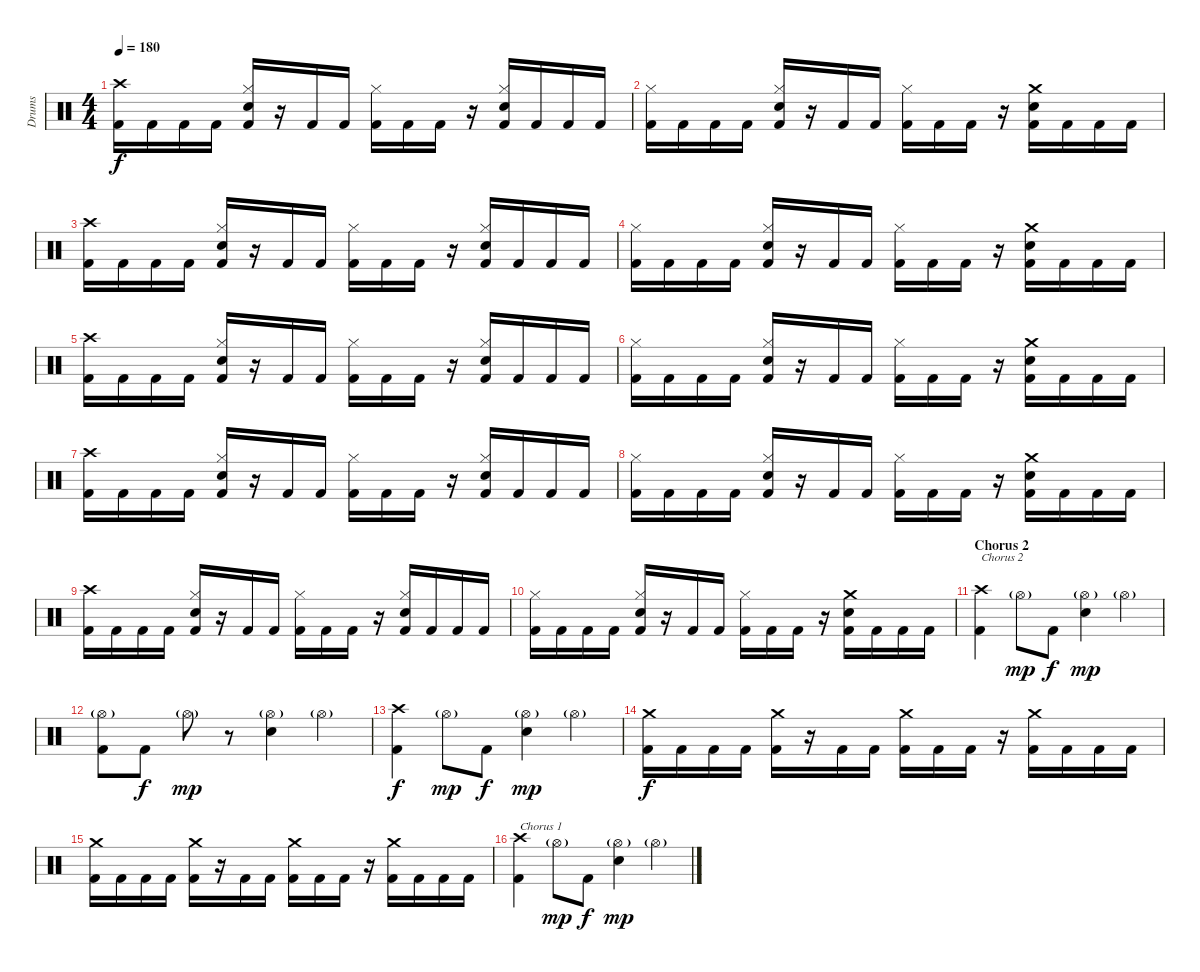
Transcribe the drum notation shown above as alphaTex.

\track ("Drums" "Drums") {instrument percussion}
\staff {score}
\articulation defaults
\ts (4 4)
\tempo 180
\clef neutral
\ks c
("Crash high (hit)" "Kick (hit) 2").16{dy f} "Kick (hit) 2".16 "Kick (hit) 2".16 "Kick (hit) 2".16 ("Hi-Hat (closed)" "Snare (hit) 2" "Kick (hit) 2").16 r.16 "Kick (hit) 2".16 "Kick (hit) 2".16 ("Hi-Hat (closed)" "Kick (hit) 2").16 "Kick (hit) 2".16 "Kick (hit) 2".16 r.16 ("Hi-Hat (closed)" "Snare (hit) 2" "Kick (hit) 2").16 "Kick (hit) 2".16 "Kick (hit) 2".16 "Kick (hit) 2".16 |
("Hi-Hat (closed)" "Kick (hit) 2").16 "Kick (hit) 2".16 "Kick (hit) 2".16 "Kick (hit) 2".16 ("Hi-Hat (closed)" "Snare (hit) 2" "Kick (hit) 2").16 r.16 "Kick (hit) 2".16 "Kick (hit) 2".16 ("Hi-Hat (closed)" "Kick (hit) 2").16 "Kick (hit) 2".16 "Kick (hit) 2".16 r.16 ("Crash medium (hit)" "Snare (hit) 2" "Kick (hit) 2").16 "Kick (hit) 2".16 "Kick (hit) 2".16 "Kick (hit) 2".16 |
("Crash high (hit)" "Kick (hit) 2").16 "Kick (hit) 2".16 "Kick (hit) 2".16 "Kick (hit) 2".16 ("Hi-Hat (closed)" "Snare (hit) 2" "Kick (hit) 2").16 r.16 "Kick (hit) 2".16 "Kick (hit) 2".16 ("Hi-Hat (closed)" "Kick (hit) 2").16 "Kick (hit) 2".16 "Kick (hit) 2".16 r.16 ("Hi-Hat (closed)" "Snare (hit) 2" "Kick (hit) 2").16 "Kick (hit) 2".16 "Kick (hit) 2".16 "Kick (hit) 2".16 |
("Hi-Hat (closed)" "Kick (hit) 2").16 "Kick (hit) 2".16 "Kick (hit) 2".16 "Kick (hit) 2".16 ("Hi-Hat (closed)" "Snare (hit) 2" "Kick (hit) 2").16 r.16 "Kick (hit) 2".16 "Kick (hit) 2".16 ("Hi-Hat (closed)" "Kick (hit) 2").16 "Kick (hit) 2".16 "Kick (hit) 2".16 r.16 ("Crash medium (hit)" "Snare (hit) 2" "Kick (hit) 2").16 "Kick (hit) 2".16 "Kick (hit) 2".16 "Kick (hit) 2".16 |
("Crash high (hit)" "Kick (hit) 2").16 "Kick (hit) 2".16 "Kick (hit) 2".16 "Kick (hit) 2".16 ("Hi-Hat (closed)" "Snare (hit) 2" "Kick (hit) 2").16 r.16 "Kick (hit) 2".16 "Kick (hit) 2".16 ("Hi-Hat (closed)" "Kick (hit) 2").16 "Kick (hit) 2".16 "Kick (hit) 2".16 r.16 ("Hi-Hat (closed)" "Snare (hit) 2" "Kick (hit) 2").16 "Kick (hit) 2".16 "Kick (hit) 2".16 "Kick (hit) 2".16 |
("Hi-Hat (closed)" "Kick (hit) 2").16 "Kick (hit) 2".16 "Kick (hit) 2".16 "Kick (hit) 2".16 ("Hi-Hat (closed)" "Snare (hit) 2" "Kick (hit) 2").16 r.16 "Kick (hit) 2".16 "Kick (hit) 2".16 ("Hi-Hat (closed)" "Kick (hit) 2").16 "Kick (hit) 2".16 "Kick (hit) 2".16 r.16 ("Crash medium (hit)" "Snare (hit) 2" "Kick (hit) 2").16 "Kick (hit) 2".16 "Kick (hit) 2".16 "Kick (hit) 2".16 |
("Crash high (hit)" "Kick (hit) 2").16 "Kick (hit) 2".16 "Kick (hit) 2".16 "Kick (hit) 2".16 ("Hi-Hat (closed)" "Snare (hit) 2" "Kick (hit) 2").16 r.16 "Kick (hit) 2".16 "Kick (hit) 2".16 ("Hi-Hat (closed)" "Kick (hit) 2").16 "Kick (hit) 2".16 "Kick (hit) 2".16 r.16 ("Hi-Hat (closed)" "Snare (hit) 2" "Kick (hit) 2").16 "Kick (hit) 2".16 "Kick (hit) 2".16 "Kick (hit) 2".16 |
("Hi-Hat (closed)" "Kick (hit) 2").16 "Kick (hit) 2".16 "Kick (hit) 2".16 "Kick (hit) 2".16 ("Hi-Hat (closed)" "Snare (hit) 2" "Kick (hit) 2").16 r.16 "Kick (hit) 2".16 "Kick (hit) 2".16 ("Hi-Hat (closed)" "Kick (hit) 2").16 "Kick (hit) 2".16 "Kick (hit) 2".16 r.16 ("Crash medium (hit)" "Snare (hit) 2" "Kick (hit) 2").16 "Kick (hit) 2".16 "Kick (hit) 2".16 "Kick (hit) 2".16 |
("Crash high (hit)" "Kick (hit) 2").16 "Kick (hit) 2".16 "Kick (hit) 2".16 "Kick (hit) 2".16 ("Hi-Hat (closed)" "Snare (hit) 2" "Kick (hit) 2").16 r.16 "Kick (hit) 2".16 "Kick (hit) 2".16 ("Hi-Hat (closed)" "Kick (hit) 2").16 "Kick (hit) 2".16 "Kick (hit) 2".16 r.16 ("Hi-Hat (closed)" "Snare (hit) 2" "Kick (hit) 2").16 "Kick (hit) 2".16 "Kick (hit) 2".16 "Kick (hit) 2".16 |
("Hi-Hat (closed)" "Kick (hit) 2").16 "Kick (hit) 2".16 "Kick (hit) 2".16 "Kick (hit) 2".16 ("Hi-Hat (closed)" "Snare (hit) 2" "Kick (hit) 2").16 r.16 "Kick (hit) 2".16 "Kick (hit) 2".16 ("Hi-Hat (closed)" "Kick (hit) 2").16 "Kick (hit) 2".16 "Kick (hit) 2".16 r.16 ("Crash medium (hit)" "Snare (hit) 2" "Kick (hit) 2").16 "Kick (hit) 2".16 "Kick (hit) 2".16 "Kick (hit) 2".16 |
\section ("" "Chorus 2")
("Crash high (hit)" "Kick (hit) 2").4{txt "Chorus 2"} "Hi-Hat (open)"{g}.8{dy mp} "Kick (hit) 2".8{dy f} ("Hi-Hat (open)"{g} "Electric Snare (hit)").4{dy mp} "Hi-Hat (open)"{g}.4 |
("Hi-Hat (open)"{g} "Kick (hit) 2").8 "Kick (hit) 2".8{dy f} "Hi-Hat (open)"{g}.8{dy mp} r.8 ("Hi-Hat (open)"{g} "Electric Snare (hit)").4 "Hi-Hat (open)"{g}.4 |
("Crash high (hit)" "Kick (hit) 2").4{dy f} "Hi-Hat (open)"{g}.8{dy mp} "Kick (hit) 2".8{dy f} ("Hi-Hat (open)"{g} "Electric Snare (hit)").4{dy mp} "Hi-Hat (open)"{g}.4 |
("Crash medium (hit)" "Kick (hit) 2").16{dy f} "Kick (hit) 2".16 "Kick (hit) 2".16 "Kick (hit) 2".16 ("Crash medium (hit)" "Kick (hit) 2").16 r.16 "Kick (hit) 2".16 "Kick (hit) 2".16 ("Crash medium (hit)" "Kick (hit) 2").16 "Kick (hit) 2".16 "Kick (hit) 2".16 r.16 ("Crash medium (hit)" "Kick (hit) 2").16 "Kick (hit) 2".16 "Kick (hit) 2".16 "Kick (hit) 2".16 |
("Crash medium (hit)" "Kick (hit) 2").16 "Kick (hit) 2".16 "Kick (hit) 2".16 "Kick (hit) 2".16 ("Crash medium (hit)" "Kick (hit) 2").16 r.16 "Kick (hit) 2".16 "Kick (hit) 2".16 ("Crash medium (hit)" "Kick (hit) 2").16 "Kick (hit) 2".16 "Kick (hit) 2".16 r.16 ("Crash medium (hit)" "Kick (hit) 2").16 "Kick (hit) 2".16 "Kick (hit) 2".16 "Kick (hit) 2".16 |
("Crash high (hit)" "Kick (hit) 2").4{txt "Chorus 1"} "Hi-Hat (open)"{g}.8{dy mp} "Kick (hit) 2".8{dy f} ("Hi-Hat (open)"{g} "Electric Snare (hit)").4{dy mp} "Hi-Hat (open)"{g}.4
